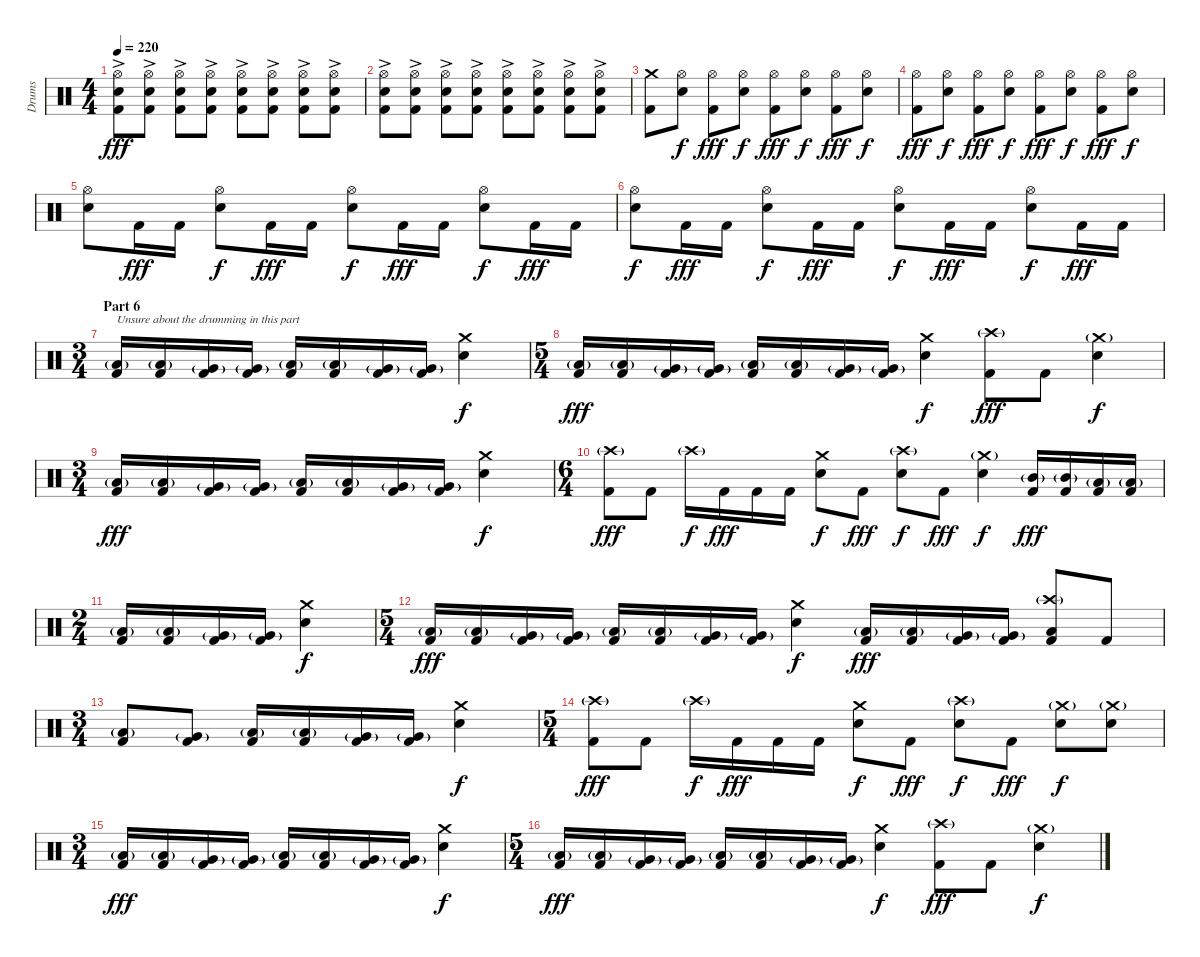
\track ("Drums" "Drums") {instrument percussion}
\staff {score}
\articulation defaults
\ts (4 4)
\tempo 220
\clef neutral
\ks c
("Hi-Hat (open)" "Electric Snare (hit)"{ac} "Kick (hit) 2").8{dy fff} ("Hi-Hat (open)" "Electric Snare (hit)"{ac} "Kick (hit) 2").8 ("Hi-Hat (open)" "Electric Snare (hit)"{ac} "Kick (hit) 2").8 ("Hi-Hat (open)" "Electric Snare (hit)"{ac} "Kick (hit) 2").8 ("Hi-Hat (open)" "Electric Snare (hit)"{ac} "Kick (hit) 2").8 ("Hi-Hat (open)" "Electric Snare (hit)"{ac} "Kick (hit) 2").8 ("Hi-Hat (open)" "Electric Snare (hit)"{ac} "Kick (hit) 2").8 ("Hi-Hat (open)" "Electric Snare (hit)"{ac} "Kick (hit) 2").8 |
("Hi-Hat (open)" "Electric Snare (hit)"{ac} "Kick (hit) 2").8 ("Hi-Hat (open)" "Electric Snare (hit)"{ac} "Kick (hit) 2").8 ("Hi-Hat (open)" "Electric Snare (hit)"{ac} "Kick (hit) 2").8 ("Hi-Hat (open)" "Electric Snare (hit)"{ac} "Kick (hit) 2").8 ("Hi-Hat (open)" "Electric Snare (hit)"{ac} "Kick (hit) 2").8 ("Hi-Hat (open)" "Electric Snare (hit)"{ac} "Kick (hit) 2").8 ("Hi-Hat (open)" "Electric Snare (hit)"{ac} "Kick (hit) 2").8 ("Hi-Hat (open)" "Electric Snare (hit)"{ac} "Kick (hit) 2").8 |
("Crash medium (hit)" "Kick (hit) 2").8 ("Hi-Hat (open)" "Electric Snare (hit)").8{dy f} ("Hi-Hat (open)" "Kick (hit) 2").8{dy fff} ("Hi-Hat (open)" "Electric Snare (hit)").8{dy f} ("Hi-Hat (open)" "Kick (hit) 2").8{dy fff} ("Hi-Hat (open)" "Electric Snare (hit)").8{dy f} ("Hi-Hat (open)" "Kick (hit) 2").8{dy fff} ("Hi-Hat (open)" "Electric Snare (hit)").8{dy f} |
("Hi-Hat (open)" "Kick (hit) 2").8{dy fff} ("Hi-Hat (open)" "Electric Snare (hit)").8{dy f} ("Hi-Hat (open)" "Kick (hit) 2").8{dy fff} ("Hi-Hat (open)" "Electric Snare (hit)").8{dy f} ("Hi-Hat (open)" "Kick (hit) 2").8{dy fff} ("Hi-Hat (open)" "Electric Snare (hit)").8{dy f} ("Hi-Hat (open)" "Kick (hit) 2").8{dy fff} ("Hi-Hat (open)" "Electric Snare (hit)").8{dy f} |
("Hi-Hat (open)" "Electric Snare (hit)").8 "Kick (hit) 2".16{dy fff} "Kick (hit) 2".16 ("Hi-Hat (open)" "Electric Snare (hit)").8{dy f} "Kick (hit) 2".16{dy fff} "Kick (hit) 2".16 ("Hi-Hat (open)" "Electric Snare (hit)").8{dy f} "Kick (hit) 2".16{dy fff} "Kick (hit) 2".16 ("Hi-Hat (open)" "Electric Snare (hit)").8{dy f} "Kick (hit) 2".16{dy fff} "Kick (hit) 2".16 |
("Hi-Hat (open)" "Electric Snare (hit)").8{dy f} "Kick (hit) 2".16{dy fff} "Kick (hit) 2".16 ("Hi-Hat (open)" "Electric Snare (hit)").8{dy f} "Kick (hit) 2".16{dy fff} "Kick (hit) 2".16 ("Hi-Hat (open)" "Electric Snare (hit)").8{dy f} "Kick (hit) 2".16{dy fff} "Kick (hit) 2".16 ("Hi-Hat (open)" "Electric Snare (hit)").8{dy f} "Kick (hit) 2".16{dy fff} "Kick (hit) 2".16 |
\ts (3 4)
\section ("" "Part 6")
("Low Tom (hit)"{g} "Kick (hit) 2").16{txt "Unsure about the drumming in this part"} ("Low Tom (hit)"{g} "Kick (hit) 2").16 ("Very Low Tom (hit)"{g} "Kick (hit) 2").16 ("Very Low Tom (hit)"{g} "Kick (hit) 2").16 ("Low Tom (hit)"{g} "Kick (hit) 2").16 ("Low Tom (hit)"{g} "Kick (hit) 2").16 ("Very Low Tom (hit)"{g} "Kick (hit) 2").16 ("Very Low Tom (hit)"{g} "Kick (hit) 2").16 ("Crash medium (hit)" "Electric Snare (hit)").4{dy f} |
\ts (5 4)
("Low Tom (hit)"{g} "Kick (hit) 2").16{dy fff} ("Low Tom (hit)"{g} "Kick (hit) 2").16 ("Very Low Tom (hit)"{g} "Kick (hit) 2").16 ("Very Low Tom (hit)"{g} "Kick (hit) 2").16 ("Low Tom (hit)"{g} "Kick (hit) 2").16 ("Low Tom (hit)"{g} "Kick (hit) 2").16 ("Very Low Tom (hit)"{g} "Kick (hit) 2").16 ("Very Low Tom (hit)"{g} "Kick (hit) 2").16 ("Crash medium (hit)" "Electric Snare (hit)").4{dy f} ("Crash high (hit)"{g} "Kick (hit) 2").8{dy fff} "Kick (hit) 2".8 ("Crash medium (hit)"{g} "Electric Snare (hit)").4{dy f} |
\ts (3 4)
("Low Tom (hit)"{g} "Kick (hit) 2").16{dy fff} ("Low Tom (hit)"{g} "Kick (hit) 2").16 ("Very Low Tom (hit)"{g} "Kick (hit) 2").16 ("Very Low Tom (hit)"{g} "Kick (hit) 2").16 ("Low Tom (hit)"{g} "Kick (hit) 2").16 ("Low Tom (hit)"{g} "Kick (hit) 2").16 ("Very Low Tom (hit)"{g} "Kick (hit) 2").16 ("Very Low Tom (hit)"{g} "Kick (hit) 2").16 ("Crash medium (hit)" "Electric Snare (hit)").4{dy f} |
\ts (6 4)
("Crash high (hit)"{g} "Kick (hit) 2").8{dy fff} "Kick (hit) 2".8 "Crash high (hit)"{g}.16{dy f} "Kick (hit) 2".16{dy fff} "Kick (hit) 2".16 "Kick (hit) 2".16 ("Crash medium (hit)" "Electric Snare (hit)").8{dy f} "Kick (hit) 2".8{dy fff} ("Crash high (hit)"{g} "Electric Snare (hit)").8{dy f} "Kick (hit) 2".8{dy fff} ("Crash medium (hit)"{g} "Electric Snare (hit)").4{dy f} ("Mid Tom (hit)"{g} "Kick (hit) 2").16{dy fff} ("Mid Tom (hit)"{g} "Kick (hit) 2").16 ("Low Tom (hit)"{g} "Kick (hit) 2").16 ("Low Tom (hit)"{g} "Kick (hit) 2").16 |
\ts (2 4)
("Low Tom (hit)"{g} "Kick (hit) 2").16 ("Low Tom (hit)"{g} "Kick (hit) 2").16 ("Very Low Tom (hit)"{g} "Kick (hit) 2").16 ("Very Low Tom (hit)"{g} "Kick (hit) 2").16 ("Crash medium (hit)" "Electric Snare (hit)").4{dy f} |
\ts (5 4)
("Low Tom (hit)"{g} "Kick (hit) 2").16{dy fff} ("Low Tom (hit)"{g} "Kick (hit) 2").16 ("Very Low Tom (hit)"{g} "Kick (hit) 2").16 ("Very Low Tom (hit)"{g} "Kick (hit) 2").16 ("Low Tom (hit)"{g} "Kick (hit) 2").16 ("Low Tom (hit)"{g} "Kick (hit) 2").16 ("Very Low Tom (hit)"{g} "Kick (hit) 2").16 ("Very Low Tom (hit)"{g} "Kick (hit) 2").16 ("Crash medium (hit)" "Electric Snare (hit)").4{dy f} ("Low Tom (hit)"{g} "Kick (hit) 2").16{dy fff} ("Low Tom (hit)"{g} "Kick (hit) 2").16 ("Very Low Tom (hit)"{g} "Kick (hit) 2").16 ("Very Low Tom (hit)"{g} "Kick (hit) 2").16 ("Crash high (hit)"{g} "Low Floor Tom (hit)" "Kick (hit) 2").8 "Kick (hit) 2".8 |
\ts (3 4)
("Low Tom (hit)"{g} "Kick (hit) 2").8 ("Very Low Tom (hit)"{g} "Kick (hit) 2").8 ("Low Tom (hit)"{g} "Kick (hit) 2").16 ("Low Tom (hit)"{g} "Kick (hit) 2").16 ("Very Low Tom (hit)"{g} "Kick (hit) 2").16 ("Very Low Tom (hit)"{g} "Kick (hit) 2").16 ("Crash medium (hit)" "Electric Snare (hit)").4{dy f} |
\ts (5 4)
("Crash high (hit)"{g} "Kick (hit) 2").8{dy fff} "Kick (hit) 2".8 "Crash high (hit)"{g}.16{dy f} "Kick (hit) 2".16{dy fff} "Kick (hit) 2".16 "Kick (hit) 2".16 ("Crash medium (hit)" "Electric Snare (hit)").8{dy f} "Kick (hit) 2".8{dy fff} ("Crash high (hit)"{g} "Electric Snare (hit)").8{dy f} "Kick (hit) 2".8{dy fff} ("Crash medium (hit)"{g} "Electric Snare (hit)").8{dy f} ("Crash medium (hit)"{g} "Electric Snare (hit)").8 |
\ts (3 4)
("Low Tom (hit)"{g} "Kick (hit) 2").16{dy fff} ("Low Tom (hit)"{g} "Kick (hit) 2").16 ("Very Low Tom (hit)"{g} "Kick (hit) 2").16 ("Very Low Tom (hit)"{g} "Kick (hit) 2").16 ("Low Tom (hit)"{g} "Kick (hit) 2").16 ("Low Tom (hit)"{g} "Kick (hit) 2").16 ("Very Low Tom (hit)"{g} "Kick (hit) 2").16 ("Very Low Tom (hit)"{g} "Kick (hit) 2").16 ("Crash medium (hit)" "Electric Snare (hit)").4{dy f} |
\ts (5 4)
("Low Tom (hit)"{g} "Kick (hit) 2").16{dy fff} ("Low Tom (hit)"{g} "Kick (hit) 2").16 ("Very Low Tom (hit)"{g} "Kick (hit) 2").16 ("Very Low Tom (hit)"{g} "Kick (hit) 2").16 ("Low Tom (hit)"{g} "Kick (hit) 2").16 ("Low Tom (hit)"{g} "Kick (hit) 2").16 ("Very Low Tom (hit)"{g} "Kick (hit) 2").16 ("Very Low Tom (hit)"{g} "Kick (hit) 2").16 ("Crash medium (hit)" "Electric Snare (hit)").4{dy f} ("Crash high (hit)"{g} "Kick (hit) 2").8{dy fff} "Kick (hit) 2".8 ("Crash medium (hit)"{g} "Electric Snare (hit)").4{dy f}
